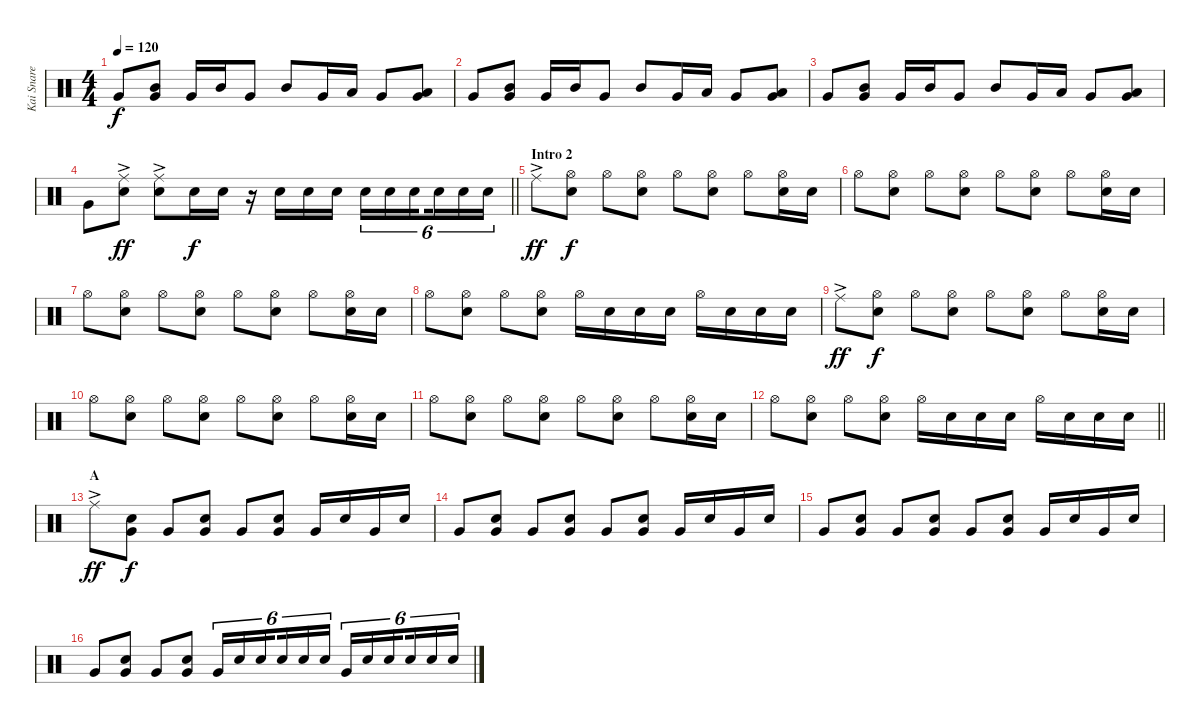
\track ("Kai Snare" "Kai Snare") {instrument percussion}
\staff {score}
\articulation defaults
\ts (4 4)
\tempo 120
\clef neutral
\ks c "Very Low Tom (hit)".8{dy f}
("Very Low Tom (hit)" "Mid Tom (hit)").8 "Very Low Tom (hit)".16 "Mid Tom (hit)".16 "Very Low Tom (hit)".8 "Mid Tom (hit)".8 "Very Low Tom (hit)".16 "Low Tom (hit)".16 "Very Low Tom (hit)".8 ("Low Tom (hit)" "Very Low Tom (hit)").8 |
"Very Low Tom (hit)".8 ("Very Low Tom (hit)" "Mid Tom (hit)").8 "Very Low Tom (hit)".16 "Mid Tom (hit)".16 "Very Low Tom (hit)".8 "Mid Tom (hit)".8 "Very Low Tom (hit)".16 "Low Tom (hit)".16 "Very Low Tom (hit)".8 ("Low Tom (hit)" "Very Low Tom (hit)").8 |
"Very Low Tom (hit)".8 ("Very Low Tom (hit)" "Mid Tom (hit)").8 "Very Low Tom (hit)".16 "Mid Tom (hit)".16 "Very Low Tom (hit)".8 "Mid Tom (hit)".8 "Very Low Tom (hit)".16 "Low Tom (hit)".16 "Very Low Tom (hit)".8 ("Low Tom (hit)" "Very Low Tom (hit)").8 |
\barLineRight lightlight "Very Low Tom (hit)".8
("Ride (middle)"{ac} "Snare (hit) 2").8{dy ff} ("Ride (middle)"{ac} "Snare (hit) 2").8 "Snare (hit) 2".16{dy f} "Snare (hit) 2".16 r.16 "Snare (hit) 2".16 "Snare (hit) 2".16 "Snare (hit) 2".16 "Snare (hit) 2".16{tu (6 4)} "Snare (hit) 2".16{tu (6 4)} "Snare (hit) 2".16{tu (6 4) beam splitsecondary} "Snare (hit) 2".16{tu (6 4)} "Snare (hit) 2".16{tu (6 4)} "Snare (hit) 2".16{tu (6 4)} |
\section ("" "Intro 2")
"Ride (middle)"{ac}.8{dy ff} ("Hi-Hat (open)" "Snare (hit) 2").8{dy f} "Hi-Hat (open)".8 ("Hi-Hat (open)" "Snare (hit) 2").8 "Hi-Hat (open)".8 ("Hi-Hat (open)" "Snare (hit) 2").8 "Hi-Hat (open)".8 ("Hi-Hat (open)" "Snare (hit) 2").16 "Snare (hit) 2".16 |
"Hi-Hat (open)".8 ("Hi-Hat (open)" "Snare (hit) 2").8 "Hi-Hat (open)".8 ("Hi-Hat (open)" "Snare (hit) 2").8 "Hi-Hat (open)".8 ("Hi-Hat (open)" "Snare (hit) 2").8 "Hi-Hat (open)".8 ("Hi-Hat (open)" "Snare (hit) 2").16 "Snare (hit) 2".16 |
"Hi-Hat (open)".8 ("Hi-Hat (open)" "Snare (hit) 2").8 "Hi-Hat (open)".8 ("Hi-Hat (open)" "Snare (hit) 2").8 "Hi-Hat (open)".8 ("Hi-Hat (open)" "Snare (hit) 2").8 "Hi-Hat (open)".8 ("Hi-Hat (open)" "Snare (hit) 2").16 "Snare (hit) 2".16 |
"Hi-Hat (open)".8 ("Hi-Hat (open)" "Snare (hit) 2").8 "Hi-Hat (open)".8 ("Hi-Hat (open)" "Snare (hit) 2").8 "Hi-Hat (open)".16 "Snare (hit) 2".16 "Snare (hit) 2".16 "Snare (hit) 2".16 "Hi-Hat (open)".16 "Snare (hit) 2".16 "Snare (hit) 2".16 "Snare (hit) 2".16 |
"Ride (middle)"{ac}.8{dy ff} ("Hi-Hat (open)" "Snare (hit) 2").8{dy f} "Hi-Hat (open)".8 ("Hi-Hat (open)" "Snare (hit) 2").8 "Hi-Hat (open)".8 ("Hi-Hat (open)" "Snare (hit) 2").8 "Hi-Hat (open)".8 ("Hi-Hat (open)" "Snare (hit) 2").16 "Snare (hit) 2".16 |
"Hi-Hat (open)".8 ("Hi-Hat (open)" "Snare (hit) 2").8 "Hi-Hat (open)".8 ("Hi-Hat (open)" "Snare (hit) 2").8 "Hi-Hat (open)".8 ("Hi-Hat (open)" "Snare (hit) 2").8 "Hi-Hat (open)".8 ("Hi-Hat (open)" "Snare (hit) 2").16 "Snare (hit) 2".16 |
"Hi-Hat (open)".8 ("Hi-Hat (open)" "Snare (hit) 2").8 "Hi-Hat (open)".8 ("Hi-Hat (open)" "Snare (hit) 2").8 "Hi-Hat (open)".8 ("Hi-Hat (open)" "Snare (hit) 2").8 "Hi-Hat (open)".8 ("Hi-Hat (open)" "Snare (hit) 2").16 "Snare (hit) 2".16 |
\barLineRight lightlight "Hi-Hat (open)".8
("Hi-Hat (open)" "Snare (hit) 2").8 "Hi-Hat (open)".8 ("Hi-Hat (open)" "Snare (hit) 2").8 "Hi-Hat (open)".16 "Snare (hit) 2".16 "Snare (hit) 2".16 "Snare (hit) 2".16 "Hi-Hat (open)".16 "Snare (hit) 2".16 "Snare (hit) 2".16 "Snare (hit) 2".16 |
\section ("" "A")
"Ride (middle)"{ac}.8{dy ff} ("Very Low Tom (hit)" "Snare (hit) 2").8{dy f} "Very Low Tom (hit)".8 ("Very Low Tom (hit)" "Snare (hit) 2").8 "Very Low Tom (hit)".8 ("Very Low Tom (hit)" "Snare (hit) 2").8 "Very Low Tom (hit)".16 "Snare (hit) 2".16 "Very Low Tom (hit)".16 "Snare (hit) 2".16 |
"Very Low Tom (hit)".8 ("Very Low Tom (hit)" "Snare (hit) 2").8 "Very Low Tom (hit)".8 ("Very Low Tom (hit)" "Snare (hit) 2").8 "Very Low Tom (hit)".8 ("Very Low Tom (hit)" "Snare (hit) 2").8 "Very Low Tom (hit)".16 "Snare (hit) 2".16 "Very Low Tom (hit)".16 "Snare (hit) 2".16 |
"Very Low Tom (hit)".8 ("Very Low Tom (hit)" "Snare (hit) 2").8 "Very Low Tom (hit)".8 ("Very Low Tom (hit)" "Snare (hit) 2").8 "Very Low Tom (hit)".8 ("Very Low Tom (hit)" "Snare (hit) 2").8 "Very Low Tom (hit)".16 "Snare (hit) 2".16 "Very Low Tom (hit)".16 "Snare (hit) 2".16 |
"Very Low Tom (hit)".8 ("Very Low Tom (hit)" "Snare (hit) 2").8 "Very Low Tom (hit)".8 ("Very Low Tom (hit)" "Snare (hit) 2").8 "Very Low Tom (hit)".16{tu (6 4)} "Snare (hit) 2".16{tu (6 4)} "Snare (hit) 2".16{tu (6 4) beam splitsecondary} "Snare (hit) 2".16{tu (6 4)} "Snare (hit) 2".16{tu (6 4)} "Snare (hit) 2".16{tu (6 4)} "Very Low Tom (hit)".16{tu (6 4)} "Snare (hit) 2".16{tu (6 4)} "Snare (hit) 2".16{tu (6 4) beam splitsecondary} "Snare (hit) 2".16{tu (6 4)} "Snare (hit) 2".16{tu (6 4)} "Snare (hit) 2".16{tu (6 4)}
